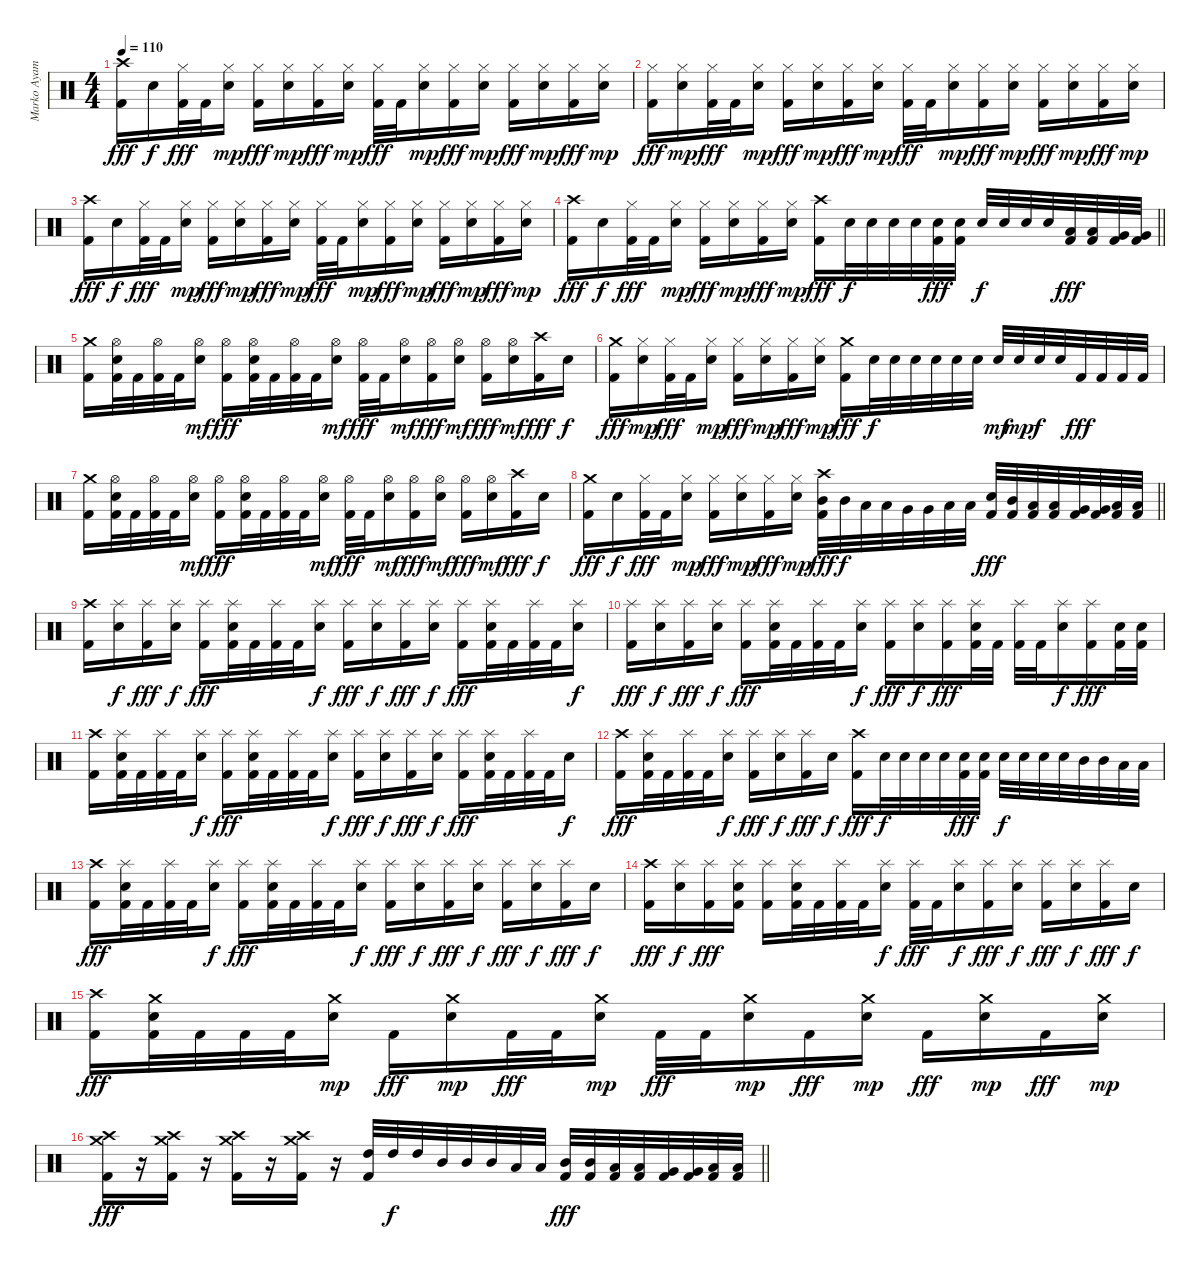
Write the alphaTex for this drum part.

\track ("Marko Ayamani" "Marko Ayam") {instrument percussion}
\staff {score}
\articulation defaults
\ts (4 4)
\tempo 110
\clef neutral
\ks c
("Crash high (hit)" "Kick (hit) 2").16{dy fff} "Snare (hit) 2".16{dy f} ("Hi-Hat (closed)" "Kick (hit) 2").32{dy fff} "Kick (hit) 2".32 ("Hi-Hat (closed)" "Snare (hit) 2").16{dy mp} ("Hi-Hat (closed)" "Kick (hit) 2").16{dy fff} ("Hi-Hat (closed)" "Snare (hit) 2").16{dy mp} ("Hi-Hat (closed)" "Kick (hit) 2").16{dy fff} ("Hi-Hat (closed)" "Snare (hit) 2").16{dy mp} ("Hi-Hat (closed)" "Kick (hit) 2").32{dy fff} "Kick (hit) 2".32 ("Hi-Hat (closed)" "Snare (hit) 2").16{dy mp} ("Hi-Hat (closed)" "Kick (hit) 2").16{dy fff} ("Hi-Hat (closed)" "Snare (hit) 2").16{dy mp} ("Hi-Hat (closed)" "Kick (hit) 2").16{dy fff} ("Hi-Hat (closed)" "Snare (hit) 2").16{dy mp} ("Hi-Hat (closed)" "Kick (hit) 2").16{dy fff} ("Hi-Hat (closed)" "Snare (hit) 2").16{dy mp} |
("Hi-Hat (closed)" "Kick (hit) 2").16{dy fff} ("Hi-Hat (closed)" "Snare (hit) 2").16{dy mp} ("Hi-Hat (closed)" "Kick (hit) 2").32{dy fff} "Kick (hit) 2".32 ("Hi-Hat (closed)" "Snare (hit) 2").16{dy mp} ("Hi-Hat (closed)" "Kick (hit) 2").16{dy fff} ("Hi-Hat (closed)" "Snare (hit) 2").16{dy mp} ("Hi-Hat (closed)" "Kick (hit) 2").16{dy fff} ("Hi-Hat (closed)" "Snare (hit) 2").16{dy mp} ("Hi-Hat (closed)" "Kick (hit) 2").32{dy fff} "Kick (hit) 2".32 ("Hi-Hat (closed)" "Snare (hit) 2").16{dy mp} ("Hi-Hat (closed)" "Kick (hit) 2").16{dy fff} ("Hi-Hat (closed)" "Snare (hit) 2").16{dy mp} ("Hi-Hat (closed)" "Kick (hit) 2").16{dy fff} ("Hi-Hat (closed)" "Snare (hit) 2").16{dy mp} ("Hi-Hat (closed)" "Kick (hit) 2").16{dy fff} ("Hi-Hat (closed)" "Snare (hit) 2").16{dy mp} |
("Crash high (hit)" "Kick (hit) 2").16{dy fff} "Snare (hit) 2".16{dy f} ("Hi-Hat (closed)" "Kick (hit) 2").32{dy fff} "Kick (hit) 2".32 ("Hi-Hat (closed)" "Snare (hit) 2").16{dy mp} ("Hi-Hat (closed)" "Kick (hit) 2").16{dy fff} ("Hi-Hat (closed)" "Snare (hit) 2").16{dy mp} ("Hi-Hat (closed)" "Kick (hit) 2").16{dy fff} ("Hi-Hat (closed)" "Snare (hit) 2").16{dy mp} ("Hi-Hat (closed)" "Kick (hit) 2").32{dy fff} "Kick (hit) 2".32 ("Hi-Hat (closed)" "Snare (hit) 2").16{dy mp} ("Hi-Hat (closed)" "Kick (hit) 2").16{dy fff} ("Hi-Hat (closed)" "Snare (hit) 2").16{dy mp} ("Hi-Hat (closed)" "Kick (hit) 2").16{dy fff} ("Hi-Hat (closed)" "Snare (hit) 2").16{dy mp} ("Hi-Hat (closed)" "Kick (hit) 2").16{dy fff} ("Hi-Hat (closed)" "Snare (hit) 2").16{dy mp} |
\barLineRight lightlight
("Crash high (hit)" "Kick (hit) 2").16{dy fff} "Snare (hit) 2".16{dy f} ("Hi-Hat (closed)" "Kick (hit) 2").32{dy fff} "Kick (hit) 2".32 ("Hi-Hat (closed)" "Snare (hit) 2").16{dy mp} ("Hi-Hat (closed)" "Kick (hit) 2").16{dy fff} ("Hi-Hat (closed)" "Snare (hit) 2").16{dy mp} ("Hi-Hat (closed)" "Kick (hit) 2").16{dy fff} ("Hi-Hat (closed)" "Snare (hit) 2").16{dy mp} ("Crash high (hit)" "Kick (hit) 2").16{dy fff} "Snare (hit) 2".32{dy f} "Snare (hit) 2".32 "Snare (hit) 2".32 "Snare (hit) 2".32 ("Snare (hit) 2" "Kick (hit) 2").32{dy fff} ("Snare (hit) 2" "Kick (hit) 2").32 "Snare (hit) 2".32{dy f} "Snare (hit) 2".32 "Snare (hit) 2".32 "Snare (hit) 2".32 ("Low Tom (hit)" "Kick (hit) 2").32{dy fff} ("Low Tom (hit)" "Kick (hit) 2").32 ("Very Low Tom (hit)" "Kick (hit) 2").32 ("Very Low Tom (hit)" "Kick (hit) 2").32 |
("Crash medium (hit)" "Kick (hit) 2").16 ("Hi-Hat (open)" "Snare (hit) 2" "Kick (hit) 2").32 "Kick (hit) 2".32 ("Hi-Hat (open)" "Kick (hit) 2").32 "Kick (hit) 2".32 ("Hi-Hat (open)" "Snare (hit) 2").16{dy mf} ("Hi-Hat (open)" "Kick (hit) 2").16{dy fff} ("Hi-Hat (open)" "Snare (hit) 2" "Kick (hit) 2").32 "Kick (hit) 2".32 ("Hi-Hat (open)" "Kick (hit) 2").32 "Kick (hit) 2".32 ("Hi-Hat (open)" "Snare (hit) 2").16{dy mf} ("Hi-Hat (open)" "Kick (hit) 2").32{dy fff} "Kick (hit) 2".32 ("Hi-Hat (open)" "Snare (hit) 2").16{dy mf} ("Hi-Hat (open)" "Kick (hit) 2").16{dy fff} ("Hi-Hat (open)" "Snare (hit) 2").16{dy mf} ("Hi-Hat (open)" "Kick (hit) 2").16{dy fff} ("Hi-Hat (open)" "Snare (hit) 2").16{dy mf} ("Crash high (hit)" "Kick (hit) 2").16{dy fff} "Snare (hit) 2".16{dy f} |
("Crash medium (hit)" "Kick (hit) 2").16{dy fff} ("Hi-Hat (closed)" "Snare (hit) 2").16{dy mp} ("Hi-Hat (closed)" "Kick (hit) 2").32{dy fff} "Kick (hit) 2".32 ("Hi-Hat (closed)" "Snare (hit) 2").16{dy mp} ("Hi-Hat (closed)" "Kick (hit) 2").16{dy fff} ("Hi-Hat (closed)" "Snare (hit) 2").16{dy mp} ("Hi-Hat (closed)" "Kick (hit) 2").16{dy fff} ("Hi-Hat (closed)" "Snare (hit) 2").16{dy mp} ("Crash medium (hit)" "Kick (hit) 2").16{dy fff} "Snare (hit) 2".32{dy f} "Snare (hit) 2".32 "Snare (hit) 2".32 "Snare (hit) 2".32 "Snare (hit) 2".32 "Snare (hit) 2".32 "Snare (hit) 2".32{dy mf} "Snare (hit) 2".32{dy mp} "Snare (hit) 2".32{dy f} "Snare (hit) 2".32 "Kick (hit) 2".32{dy fff} "Kick (hit) 2".32 "Kick (hit) 2".32 "Kick (hit) 2".32 |
("Crash medium (hit)" "Kick (hit) 2").16 ("Hi-Hat (open)" "Snare (hit) 2" "Kick (hit) 2").32 "Kick (hit) 2".32 ("Hi-Hat (open)" "Kick (hit) 2").32 "Kick (hit) 2".32 ("Hi-Hat (open)" "Snare (hit) 2").16{dy mf} ("Hi-Hat (open)" "Kick (hit) 2").16{dy fff} ("Hi-Hat (open)" "Snare (hit) 2" "Kick (hit) 2").32 "Kick (hit) 2".32 ("Hi-Hat (open)" "Kick (hit) 2").32 "Kick (hit) 2".32 ("Hi-Hat (open)" "Snare (hit) 2").16{dy mf} ("Hi-Hat (open)" "Kick (hit) 2").32{dy fff} "Kick (hit) 2".32 ("Hi-Hat (open)" "Snare (hit) 2").16{dy mf} ("Hi-Hat (open)" "Kick (hit) 2").16{dy fff} ("Hi-Hat (open)" "Snare (hit) 2").16{dy mf} ("Hi-Hat (open)" "Kick (hit) 2").16{dy fff} ("Hi-Hat (open)" "Snare (hit) 2").16{dy mf} ("Crash high (hit)" "Kick (hit) 2").16{dy fff} "Snare (hit) 2".16{dy f} |
\barLineRight lightlight
("Crash medium (hit)" "Kick (hit) 2").16{dy fff} "Snare (hit) 2".16{dy f} ("Hi-Hat (closed)" "Kick (hit) 2").32{dy fff} "Kick (hit) 2".32 ("Hi-Hat (closed)" "Snare (hit) 2").16{dy mp} ("Hi-Hat (closed)" "Kick (hit) 2").16{dy fff} ("Hi-Hat (closed)" "Snare (hit) 2").16{dy mp} ("Hi-Hat (closed)" "Kick (hit) 2").16{dy fff} ("Hi-Hat (closed)" "Snare (hit) 2").16{dy mp} ("Crash high (hit)" "Mid Tom (hit)" "Kick (hit) 2").32{dy fff} "Mid Tom (hit)".32{dy f} "Low Tom (hit)".32 "Low Tom (hit)".32 "Very Low Tom (hit)".32 "Very Low Tom (hit)".32 "Low Floor Tom (hit)".32 "Low Floor Tom (hit)".32 ("Snare (hit) 2" "Kick (hit) 2").32{dy fff} ("Mid Tom (hit)" "Kick (hit) 2").32 ("Low Tom (hit)" "Kick (hit) 2").32 ("Low Tom (hit)" "Kick (hit) 2").32 ("Very Low Tom (hit)" "Kick (hit) 2").32 ("Very Low Tom (hit)" "Kick (hit) 2").32 ("Low Floor Tom (hit)" "Kick (hit) 2").32 ("Low Floor Tom (hit)" "Kick (hit) 2").32 |
("Crash high (hit)" "Kick (hit) 2").16 ("Splash (hit)" "Snare (hit) 2").16{dy f} ("Splash (hit)" "Kick (hit) 2").16{dy fff} ("Splash (hit)" "Snare (hit) 2").16{dy f} ("Splash (hit)" "Kick (hit) 2").16{dy fff} ("Splash (hit)" "Snare (hit) 2" "Kick (hit) 2").32 "Kick (hit) 2".32 ("Splash (hit)" "Kick (hit) 2").32 "Kick (hit) 2".32 ("Splash (hit)" "Snare (hit) 2").16{dy f} ("Splash (hit)" "Kick (hit) 2").16{dy fff} ("Splash (hit)" "Snare (hit) 2").16{dy f} ("Splash (hit)" "Kick (hit) 2").16{dy fff} ("Splash (hit)" "Snare (hit) 2").16{dy f} ("Splash (hit)" "Kick (hit) 2").16{dy fff} ("Splash (hit)" "Snare (hit) 2" "Kick (hit) 2").32 "Kick (hit) 2".32 ("Splash (hit)" "Kick (hit) 2").32 "Kick (hit) 2".32 ("Splash (hit)" "Snare (hit) 2").16{dy f} |
("Splash (hit)" "Kick (hit) 2").16{dy fff} ("Splash (hit)" "Snare (hit) 2").16{dy f} ("Splash (hit)" "Kick (hit) 2").16{dy fff} ("Splash (hit)" "Snare (hit) 2").16{dy f} ("Splash (hit)" "Kick (hit) 2").16{dy fff} ("Splash (hit)" "Snare (hit) 2" "Kick (hit) 2").32 "Kick (hit) 2".32 ("Splash (hit)" "Kick (hit) 2").32 "Kick (hit) 2".32 ("Splash (hit)" "Snare (hit) 2").16{dy f} ("Splash (hit)" "Kick (hit) 2").16{dy fff} ("Splash (hit)" "Snare (hit) 2").16{dy f} ("Splash (hit)" "Kick (hit) 2").16{dy fff} ("Splash (hit)" "Snare (hit) 2" "Kick (hit) 2").32 "Kick (hit) 2".32 ("Splash (hit)" "Kick (hit) 2").32 "Kick (hit) 2".32 ("Splash (hit)" "Snare (hit) 2").16{dy f} ("Splash (hit)" "Kick (hit) 2").16{dy fff} ("Snare (hit) 2" "Kick (hit) 2").32 ("Snare (hit) 2" "Kick (hit) 2").32 |
("Crash high (hit)" "Kick (hit) 2").16 ("Splash (hit)" "Snare (hit) 2" "Kick (hit) 2").32 "Kick (hit) 2".32 ("Splash (hit)" "Kick (hit) 2").32 "Kick (hit) 2".32 ("Splash (hit)" "Snare (hit) 2").16{dy f} ("Splash (hit)" "Kick (hit) 2").16{dy fff} ("Splash (hit)" "Snare (hit) 2" "Kick (hit) 2").32 "Kick (hit) 2".32 ("Splash (hit)" "Kick (hit) 2").32 "Kick (hit) 2".32 ("Splash (hit)" "Snare (hit) 2").16{dy f} ("Splash (hit)" "Kick (hit) 2").16{dy fff} ("Splash (hit)" "Snare (hit) 2").16{dy f} ("Splash (hit)" "Kick (hit) 2").16{dy fff} ("Splash (hit)" "Snare (hit) 2").16{dy f} ("Splash (hit)" "Kick (hit) 2").16{dy fff} ("Splash (hit)" "Snare (hit) 2" "Kick (hit) 2").32 "Kick (hit) 2".32 ("Splash (hit)" "Kick (hit) 2").32 "Kick (hit) 2".32 "Snare (hit) 2".16{dy f} |
("Crash high (hit)" "Kick (hit) 2").16{dy fff} ("Splash (hit)" "Snare (hit) 2" "Kick (hit) 2").32 "Kick (hit) 2".32 ("Splash (hit)" "Kick (hit) 2").32 "Kick (hit) 2".32 ("Splash (hit)" "Snare (hit) 2").16{dy f} ("Splash (hit)" "Kick (hit) 2").16{dy fff} ("Splash (hit)" "Snare (hit) 2").16{dy f} ("Splash (hit)" "Kick (hit) 2").16{dy fff} "Snare (hit) 2".16{dy f} ("Crash high (hit)" "Kick (hit) 2").16{dy fff} "Snare (hit) 2".32{dy f} "Snare (hit) 2".32 "Snare (hit) 2".32 "Snare (hit) 2".32 ("Snare (hit) 2" "Kick (hit) 2").32{dy fff} ("Snare (hit) 2" "Kick (hit) 2").32 "Snare (hit) 2".32{dy f} "Snare (hit) 2".32 "Snare (hit) 2".32 "Snare (hit) 2".32 "Mid Tom (hit)".32 "Mid Tom (hit)".32 "Low Tom (hit)".32 "Low Tom (hit)".32 |
("Crash high (hit)" "Kick (hit) 2").16{dy fff} ("Splash (hit)" "Snare (hit) 2" "Kick (hit) 2").32 "Kick (hit) 2".32 ("Splash (hit)" "Kick (hit) 2").32 "Kick (hit) 2".32 ("Splash (hit)" "Snare (hit) 2").16{dy f} ("Splash (hit)" "Kick (hit) 2").16{dy fff} ("Splash (hit)" "Snare (hit) 2" "Kick (hit) 2").32 "Kick (hit) 2".32 ("Splash (hit)" "Kick (hit) 2").32 "Kick (hit) 2".32 ("Splash (hit)" "Snare (hit) 2").16{dy f} ("Splash (hit)" "Kick (hit) 2").16{dy fff} ("Splash (hit)" "Snare (hit) 2").16{dy f} ("Splash (hit)" "Kick (hit) 2").16{dy fff} ("Splash (hit)" "Snare (hit) 2").16{dy f} ("Splash (hit)" "Kick (hit) 2").16{dy fff} ("Splash (hit)" "Snare (hit) 2").16{dy f} ("Splash (hit)" "Kick (hit) 2").16{dy fff} "Snare (hit) 2".16{dy f} |
("Crash high (hit)" "Kick (hit) 2").16{dy fff} ("Splash (hit)" "Snare (hit) 2").16{dy f} ("Splash (hit)" "Kick (hit) 2").16{dy fff} ("Splash (hit)" "Snare (hit) 2" "Kick (hit) 2").16 ("Splash (hit)" "Kick (hit) 2").16 ("Splash (hit)" "Snare (hit) 2" "Kick (hit) 2").32 "Kick (hit) 2".32 ("Splash (hit)" "Kick (hit) 2").32 "Kick (hit) 2".32 ("Splash (hit)" "Snare (hit) 2").16{dy f} ("Splash (hit)" "Kick (hit) 2").32{dy fff} "Kick (hit) 2".32 ("Splash (hit)" "Snare (hit) 2").16{dy f} ("Splash (hit)" "Kick (hit) 2").16{dy fff} ("Splash (hit)" "Snare (hit) 2").16{dy f} ("Splash (hit)" "Kick (hit) 2").16{dy fff} ("Splash (hit)" "Snare (hit) 2").16{dy f} ("Splash (hit)" "Kick (hit) 2").16{dy fff} "Snare (hit) 2".16{dy f} |
("Crash high (hit)" "Kick (hit) 2").16{dy fff} ("Crash medium (hit)" "Snare (hit) 2" "Kick (hit) 2").32 "Kick (hit) 2".32 "Kick (hit) 2".32 "Kick (hit) 2".32 ("Crash medium (hit)" "Snare (hit) 2").16{dy mp} "Kick (hit) 2".16{dy fff} ("Crash medium (hit)" "Snare (hit) 2").16{dy mp} "Kick (hit) 2".32{dy fff} "Kick (hit) 2".32 ("Crash medium (hit)" "Snare (hit) 2").16{dy mp} "Kick (hit) 2".32{dy fff} "Kick (hit) 2".32 ("Crash medium (hit)" "Snare (hit) 2").16{dy mp} "Kick (hit) 2".16{dy fff} ("Crash medium (hit)" "Snare (hit) 2").16{dy mp} "Kick (hit) 2".16{dy fff} ("Crash medium (hit)" "Snare (hit) 2").16{dy mp} "Kick (hit) 2".16{dy fff} ("Crash medium (hit)" "Snare (hit) 2").16{dy mp} |
\barLineRight lightlight
("Crash high (hit)" "Crash medium (hit)" "Kick (hit) 2").16{dy fff} r.16 ("Crash high (hit)" "Crash medium (hit)" "Kick (hit) 2").16 r.16 ("Crash high (hit)" "Crash medium (hit)" "Kick (hit) 2").16 r.16 ("Crash high (hit)" "Crash medium (hit)" "Kick (hit) 2").16 r.16 ("High Tom (hit)" "Kick (hit) 2").32 "High Tom (hit)".32{dy f} "High Tom (hit)".32 "Mid Tom (hit)".32 "Mid Tom (hit)".32 "Mid Tom (hit)".32 "Low Tom (hit)".32 "Low Tom (hit)".32 ("Mid Tom (hit)" "Kick (hit) 2").32{dy fff} ("Mid Tom (hit)" "Kick (hit) 2").32 ("Low Tom (hit)" "Kick (hit) 2").32 ("Low Tom (hit)" "Kick (hit) 2").32 ("Very Low Tom (hit)" "Kick (hit) 2").32 ("Very Low Tom (hit)" "Kick (hit) 2").32 ("Low Floor Tom (hit)" "Kick (hit) 2").32 ("Low Floor Tom (hit)" "Kick (hit) 2").32
